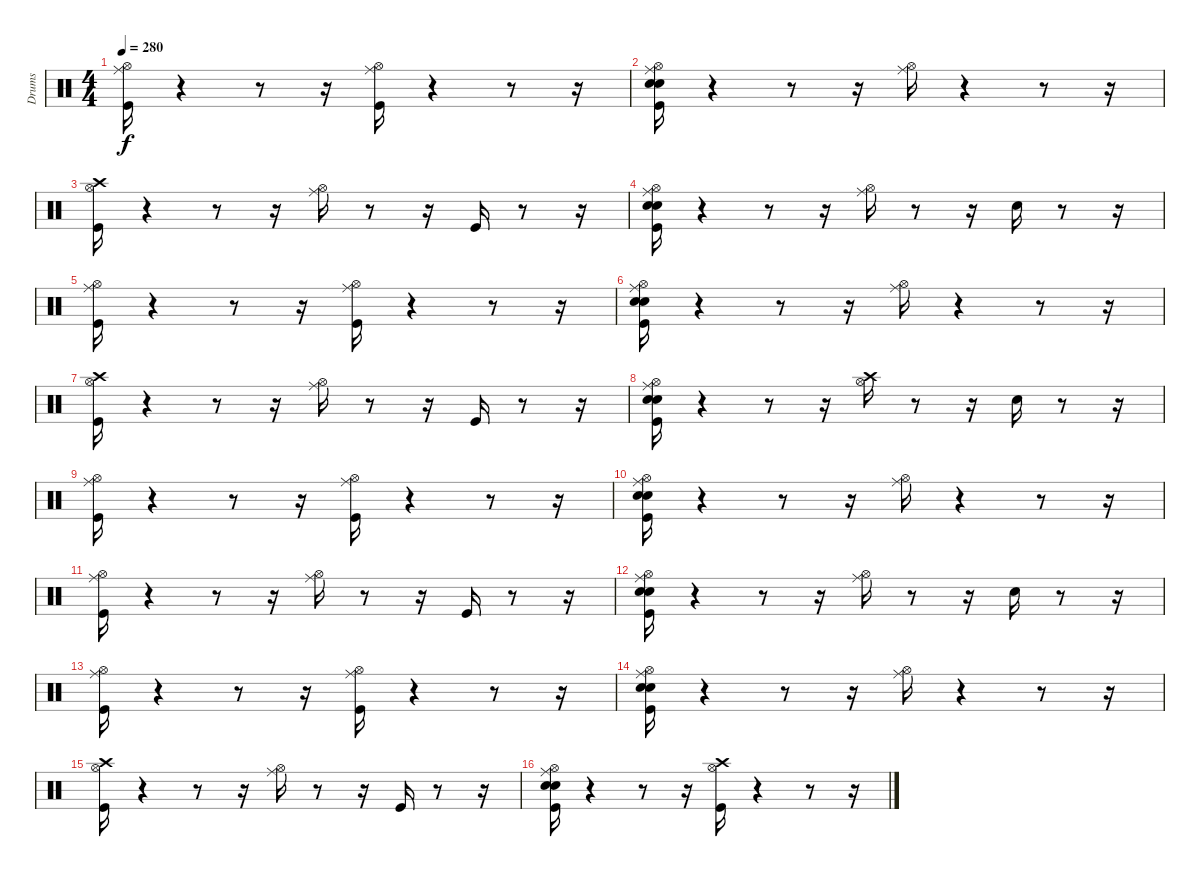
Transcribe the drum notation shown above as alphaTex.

\track ("Drums" "Drums") {instrument percussion}
\staff {score}
\articulation defaults
\ts (4 4)
\tempo 280
\clef neutral
\ks c
("Ride (middle)" "Hi-Hat (open)" "Kick (hit)").16{dy f} r.4 r.8 r.16 ("Hi-Hat (open)" "Ride (middle)" "Kick (hit)").16 r.4 r.8 r.16 |
("Ride (middle)" "Hi-Hat (open)" "Kick (hit)" "Snare (hit) 2" "Electric Snare (hit)").16 r.4 r.8 r.16 ("Hi-Hat (open)" "Ride (middle)").16 r.4 r.8 r.16 |
("Crash high (hit)" "Hi-Hat (open)" "Kick (hit)").16 r.4 r.8 r.16 ("Hi-Hat (open)" "Ride (middle)").16 r.8 r.16 "Kick (hit)".16 r.8 r.16 |
("Hi-Hat (open)" "Kick (hit)" "Snare (hit) 2" "Electric Snare (hit)" "Ride (middle)").16 r.4 r.8 r.16 ("Hi-Hat (open)" "Ride (middle)").16 r.8 r.16 "Snare (hit) 2".16 r.8 r.16 |
("Ride (middle)" "Hi-Hat (open)" "Kick (hit)").16 r.4 r.8 r.16 ("Hi-Hat (open)" "Ride (middle)" "Kick (hit)").16 r.4 r.8 r.16 |
("Ride (middle)" "Hi-Hat (open)" "Kick (hit)" "Snare (hit) 2" "Electric Snare (hit)").16 r.4 r.8 r.16 ("Hi-Hat (open)" "Ride (middle)").16 r.4 r.8 r.16 |
("Crash high (hit)" "Hi-Hat (open)" "Kick (hit)").16 r.4 r.8 r.16 ("Hi-Hat (open)" "Ride (middle)").16 r.8 r.16 "Kick (hit)".16 r.8 r.16 |
("Hi-Hat (open)" "Kick (hit)" "Snare (hit) 2" "Electric Snare (hit)" "Ride (middle)").16 r.4 r.8 r.16 ("Hi-Hat (open)" "Crash high (hit)").16 r.8 r.16 "Snare (hit) 2".16 r.8 r.16 |
("Ride (middle)" "Hi-Hat (open)" "Kick (hit)").16 r.4 r.8 r.16 ("Hi-Hat (open)" "Ride (middle)" "Kick (hit)").16 r.4 r.8 r.16 |
("Ride (middle)" "Hi-Hat (open)" "Kick (hit)" "Snare (hit) 2" "Electric Snare (hit)").16 r.4 r.8 r.16 ("Hi-Hat (open)" "Ride (middle)").16 r.4 r.8 r.16 |
("Hi-Hat (open)" "Kick (hit)" "Ride (middle)").16 r.4 r.8 r.16 ("Hi-Hat (open)" "Ride (middle)").16 r.8 r.16 "Kick (hit)".16 r.8 r.16 |
("Hi-Hat (open)" "Kick (hit)" "Snare (hit) 2" "Electric Snare (hit)" "Ride (middle)").16 r.4 r.8 r.16 ("Hi-Hat (open)" "Ride (middle)").16 r.8 r.16 "Snare (hit) 2".16 r.8 r.16 |
("Ride (middle)" "Hi-Hat (open)" "Kick (hit)").16 r.4 r.8 r.16 ("Hi-Hat (open)" "Ride (middle)" "Kick (hit)").16 r.4 r.8 r.16 |
("Ride (middle)" "Hi-Hat (open)" "Kick (hit)" "Snare (hit) 2" "Electric Snare (hit)").16 r.4 r.8 r.16 ("Hi-Hat (open)" "Ride (middle)").16 r.4 r.8 r.16 |
("Crash high (hit)" "Hi-Hat (open)" "Kick (hit)").16 r.4 r.8 r.16 ("Hi-Hat (open)" "Ride (middle)").16 r.8 r.16 "Kick (hit)".16 r.8 r.16 |
("Hi-Hat (open)" "Ride (middle)" "Kick (hit)" "Snare (hit) 2" "Electric Snare (hit)").16 r.4 r.8 r.16 ("Hi-Hat (open)" "Crash high (hit)" "Kick (hit)").16 r.4 r.8 r.16
